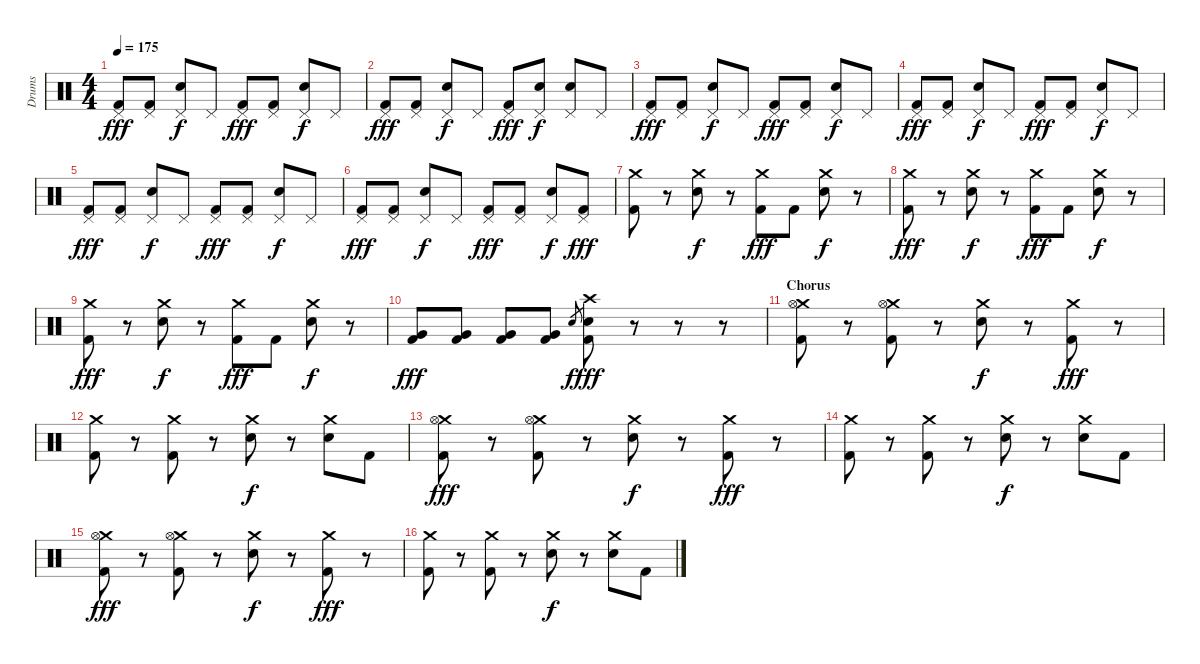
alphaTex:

\track ("Drums" "Drums") {instrument percussion}
\staff {score}
\articulation defaults
\ts (4 4)
\tempo 175
\clef neutral
\ks c
("Pedal Hi-Hat (hit)" "Kick (hit) 2").8{dy fff} ("Pedal Hi-Hat (hit)" "Kick (hit) 2").8 ("Pedal Hi-Hat (hit)" "Electric Snare (hit)").8{dy f} "Pedal Hi-Hat (hit)".8 ("Pedal Hi-Hat (hit)" "Kick (hit) 2").8{dy fff} ("Pedal Hi-Hat (hit)" "Kick (hit) 2").8 ("Pedal Hi-Hat (hit)" "Electric Snare (hit)").8{dy f} "Pedal Hi-Hat (hit)".8 |
("Pedal Hi-Hat (hit)" "Kick (hit) 2").8{dy fff} ("Pedal Hi-Hat (hit)" "Kick (hit) 2").8 ("Pedal Hi-Hat (hit)" "Electric Snare (hit)").8{dy f} "Pedal Hi-Hat (hit)".8 ("Pedal Hi-Hat (hit)" "Kick (hit) 2").8{dy fff} ("Pedal Hi-Hat (hit)" "Electric Snare (hit)").8{dy f} ("Pedal Hi-Hat (hit)" "Electric Snare (hit)").8 "Pedal Hi-Hat (hit)".8 |
("Pedal Hi-Hat (hit)" "Kick (hit) 2").8{dy fff} ("Pedal Hi-Hat (hit)" "Kick (hit) 2").8 ("Pedal Hi-Hat (hit)" "Electric Snare (hit)").8{dy f} "Pedal Hi-Hat (hit)".8 ("Pedal Hi-Hat (hit)" "Kick (hit) 2").8{dy fff} ("Pedal Hi-Hat (hit)" "Kick (hit) 2").8 ("Pedal Hi-Hat (hit)" "Electric Snare (hit)").8{dy f} "Pedal Hi-Hat (hit)".8 |
("Pedal Hi-Hat (hit)" "Kick (hit) 2").8{dy fff} ("Pedal Hi-Hat (hit)" "Kick (hit) 2").8 ("Pedal Hi-Hat (hit)" "Electric Snare (hit)").8{dy f} "Pedal Hi-Hat (hit)".8 ("Pedal Hi-Hat (hit)" "Kick (hit) 2").8{dy fff} ("Pedal Hi-Hat (hit)" "Kick (hit) 2").8 ("Pedal Hi-Hat (hit)" "Electric Snare (hit)").8{dy f} "Pedal Hi-Hat (hit)".8 |
("Pedal Hi-Hat (hit)" "Kick (hit) 2").8{dy fff} ("Pedal Hi-Hat (hit)" "Kick (hit) 2").8 ("Pedal Hi-Hat (hit)" "Electric Snare (hit)").8{dy f} "Pedal Hi-Hat (hit)".8 ("Pedal Hi-Hat (hit)" "Kick (hit) 2").8{dy fff} ("Pedal Hi-Hat (hit)" "Kick (hit) 2").8 ("Pedal Hi-Hat (hit)" "Electric Snare (hit)").8{dy f} "Pedal Hi-Hat (hit)".8 |
("Pedal Hi-Hat (hit)" "Kick (hit) 2").8{dy fff} ("Pedal Hi-Hat (hit)" "Kick (hit) 2").8 ("Pedal Hi-Hat (hit)" "Electric Snare (hit)").8{dy f} "Pedal Hi-Hat (hit)".8 ("Pedal Hi-Hat (hit)" "Kick (hit) 2").8{dy fff} ("Pedal Hi-Hat (hit)" "Kick (hit) 2").8 ("Pedal Hi-Hat (hit)" "Electric Snare (hit)").8{dy f} ("Pedal Hi-Hat (hit)" "Kick (hit) 2").8{dy fff} |
("Crash medium (hit)" "Kick (hit) 2").8 r.8 ("Crash medium (hit)" "Electric Snare (hit)").8{dy f} r.8 ("Crash medium (hit)" "Kick (hit) 2").8{dy fff} "Kick (hit) 2".8 ("Crash medium (hit)" "Electric Snare (hit)").8{dy f} r.8 |
("Crash medium (hit)" "Kick (hit) 2").8{dy fff} r.8 ("Crash medium (hit)" "Electric Snare (hit)").8{dy f} r.8 ("Crash medium (hit)" "Kick (hit) 2").8{dy fff} "Kick (hit) 2".8 ("Crash medium (hit)" "Electric Snare (hit)").8{dy f} r.8 |
("Crash medium (hit)" "Kick (hit) 2").8{dy fff} r.8 ("Crash medium (hit)" "Electric Snare (hit)").8{dy f} r.8 ("Crash medium (hit)" "Kick (hit) 2").8{dy fff} "Kick (hit) 2".8 ("Crash medium (hit)" "Electric Snare (hit)").8{dy f} r.8 |
("Very Low Tom (hit)" "Kick (hit) 2").8{dy fff} ("Very Low Tom (hit)" "Kick (hit) 2").8 ("Very Low Tom (hit)" "Kick (hit) 2").8 ("Very Low Tom (hit)" "Kick (hit) 2").8 "Electric Snare (hit)".8{gr dy f} ("Crash high (hit)" "Electric Snare (hit)" "Kick (hit) 2").8{dy fff} r.8 r.8 r.8 |
\section ("" "Chorus")
("Crash medium (hit)" "Hi-Hat (open)" "Kick (hit) 2").8 r.8 ("Crash medium (hit)" "Hi-Hat (open)" "Kick (hit) 2").8 r.8 ("Crash medium (hit)" "Electric Snare (hit)").8{dy f} r.8 ("Crash medium (hit)" "Kick (hit) 2").8{dy fff} r.8 |
("Crash medium (hit)" "Kick (hit) 2").8 r.8 ("Crash medium (hit)" "Kick (hit) 2").8 r.8 ("Crash medium (hit)" "Electric Snare (hit)").8{dy f} r.8 ("Crash medium (hit)" "Electric Snare (hit)").8 "Kick (hit) 2".8 |
("Crash medium (hit)" "Hi-Hat (open)" "Kick (hit) 2").8{dy fff} r.8 ("Crash medium (hit)" "Hi-Hat (open)" "Kick (hit) 2").8 r.8 ("Crash medium (hit)" "Electric Snare (hit)").8{dy f} r.8 ("Crash medium (hit)" "Kick (hit) 2").8{dy fff} r.8 |
("Crash medium (hit)" "Kick (hit) 2").8 r.8 ("Crash medium (hit)" "Kick (hit) 2").8 r.8 ("Crash medium (hit)" "Electric Snare (hit)").8{dy f} r.8 ("Crash medium (hit)" "Electric Snare (hit)").8 "Kick (hit) 2".8 |
("Crash medium (hit)" "Hi-Hat (open)" "Kick (hit) 2").8{dy fff} r.8 ("Crash medium (hit)" "Hi-Hat (open)" "Kick (hit) 2").8 r.8 ("Crash medium (hit)" "Electric Snare (hit)").8{dy f} r.8 ("Crash medium (hit)" "Kick (hit) 2").8{dy fff} r.8 |
("Crash medium (hit)" "Kick (hit) 2").8 r.8 ("Crash medium (hit)" "Kick (hit) 2").8 r.8 ("Crash medium (hit)" "Electric Snare (hit)").8{dy f} r.8 ("Crash medium (hit)" "Electric Snare (hit)").8 "Kick (hit) 2".8
